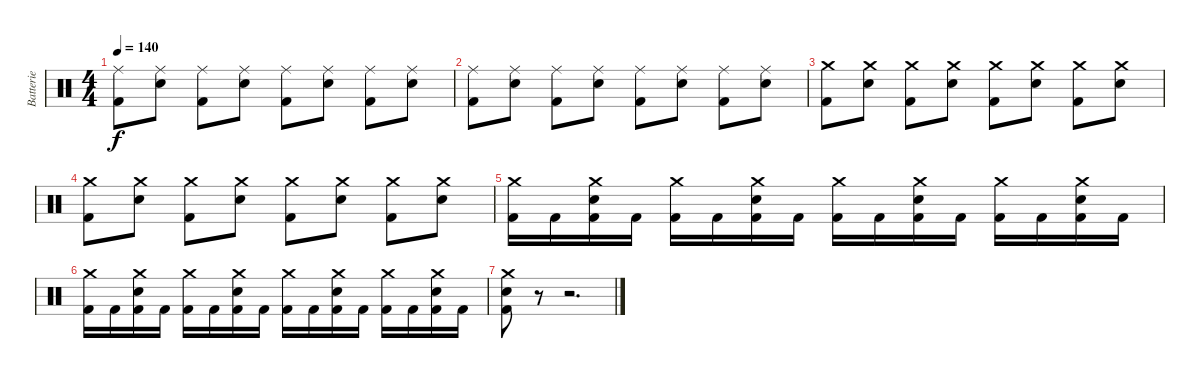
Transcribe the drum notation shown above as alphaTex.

\track ("Batterie" "Batterie") {instrument percussion}
\staff {score}
\articulation defaults
\ts (4 4)
\tempo 140
\clef neutral
\ks c
("Ride (middle)" "Kick (hit) 2").8{dy f} ("Ride (middle)" "Electric Snare (hit)").8 ("Ride (middle)" "Kick (hit) 2").8 ("Ride (middle)" "Electric Snare (hit)").8 ("Ride (middle)" "Kick (hit) 2").8 ("Ride (middle)" "Electric Snare (hit)").8 ("Ride (middle)" "Kick (hit) 2").8 ("Ride (middle)" "Electric Snare (hit)").8 |
("Ride (middle)" "Kick (hit) 2").8 ("Ride (middle)" "Electric Snare (hit)").8 ("Ride (middle)" "Kick (hit) 2").8 ("Ride (middle)" "Electric Snare (hit)").8 ("Ride (middle)" "Kick (hit) 2").8 ("Ride (middle)" "Electric Snare (hit)").8 ("Ride (middle)" "Kick (hit) 2").8 ("Ride (middle)" "Electric Snare (hit)").8 |
("Crash medium (hit)" "Kick (hit) 2").8 ("Crash medium (hit)" "Electric Snare (hit)").8 ("Crash medium (hit)" "Kick (hit) 2").8 ("Crash medium (hit)" "Electric Snare (hit)").8 ("Crash medium (hit)" "Kick (hit) 2").8 ("Crash medium (hit)" "Electric Snare (hit)").8 ("Crash medium (hit)" "Kick (hit) 2").8 ("Crash medium (hit)" "Electric Snare (hit)").8 |
("Crash medium (hit)" "Kick (hit) 2").8 ("Crash medium (hit)" "Electric Snare (hit)").8 ("Crash medium (hit)" "Kick (hit) 2").8 ("Crash medium (hit)" "Electric Snare (hit)").8 ("Crash medium (hit)" "Kick (hit) 2").8 ("Crash medium (hit)" "Electric Snare (hit)").8 ("Crash medium (hit)" "Kick (hit) 2").8 ("Crash medium (hit)" "Electric Snare (hit)").8 |
("Crash medium (hit)" "Kick (hit) 2").16 "Kick (hit) 2".16 ("Crash medium (hit)" "Electric Snare (hit)" "Kick (hit) 2").16 "Kick (hit) 2".16 ("Crash medium (hit)" "Kick (hit) 2").16 "Kick (hit) 2".16 ("Crash medium (hit)" "Electric Snare (hit)" "Kick (hit) 2").16 "Kick (hit) 2".16 ("Crash medium (hit)" "Kick (hit) 2").16 "Kick (hit) 2".16 ("Crash medium (hit)" "Electric Snare (hit)" "Kick (hit) 2").16 "Kick (hit) 2".16 ("Crash medium (hit)" "Kick (hit) 2").16 "Kick (hit) 2".16 ("Crash medium (hit)" "Electric Snare (hit)" "Kick (hit) 2").16 "Kick (hit) 2".16 |
("Crash medium (hit)" "Kick (hit) 2").16 "Kick (hit) 2".16 ("Crash medium (hit)" "Electric Snare (hit)" "Kick (hit) 2").16 "Kick (hit) 2".16 ("Crash medium (hit)" "Kick (hit) 2").16 "Kick (hit) 2".16 ("Crash medium (hit)" "Electric Snare (hit)" "Kick (hit) 2").16 "Kick (hit) 2".16 ("Crash medium (hit)" "Kick (hit) 2").16 "Kick (hit) 2".16 ("Crash medium (hit)" "Electric Snare (hit)" "Kick (hit) 2").16 "Kick (hit) 2".16 ("Crash medium (hit)" "Kick (hit) 2").16 "Kick (hit) 2".16 ("Crash medium (hit)" "Electric Snare (hit)" "Kick (hit) 2").16 "Kick (hit) 2".16 |
("Crash medium (hit)" "Electric Snare (hit)" "Kick (hit) 2").8 r.8 r.2{d}
